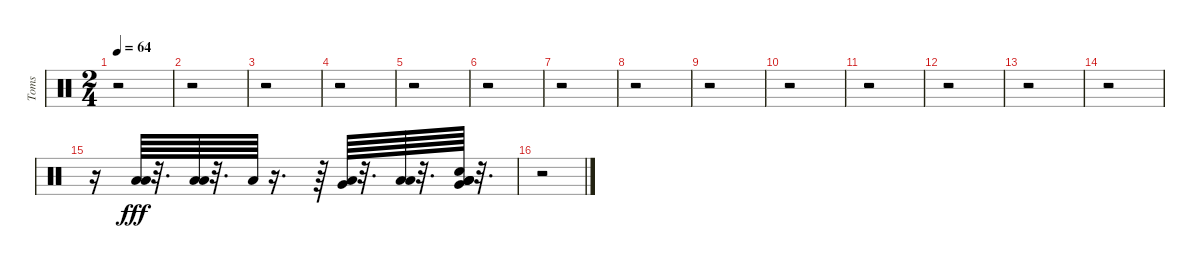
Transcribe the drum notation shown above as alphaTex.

\track ("Toms" "Toms") {instrument percussion}
\staff {score}
\articulation defaults
\ts (2 4)
\tempo 64
\clef neutral
\ks c
r.2{dy fff} |
r.2 |
r.2 |
r.2 |
r.2 |
r.2 |
r.2 |
r.2 |
r.2 |
r.2 |
r.2 |
r.2 |
r.2 |
r.2 |
r.16 ("Low Tom (hit)" "Low Tom (hit)").64 r.32{d} ("Low Tom (hit)" "Low Tom (hit)").64 r.32{d} "Low Tom (hit)".64 r.16{d} r.64 ("Very Low Tom (hit)" "Low Floor Tom (hit)").64 r.32{d} ("Low Floor Tom (hit)" "Low Floor Tom (hit)").64 r.32{d} ("Low Floor Tom (hit)" "Electric Snare (hit)" "Very Low Tom (hit)" "Low Floor Tom (hit)" "Low Floor Tom (hit)").64 r.32{d} |
r.2
